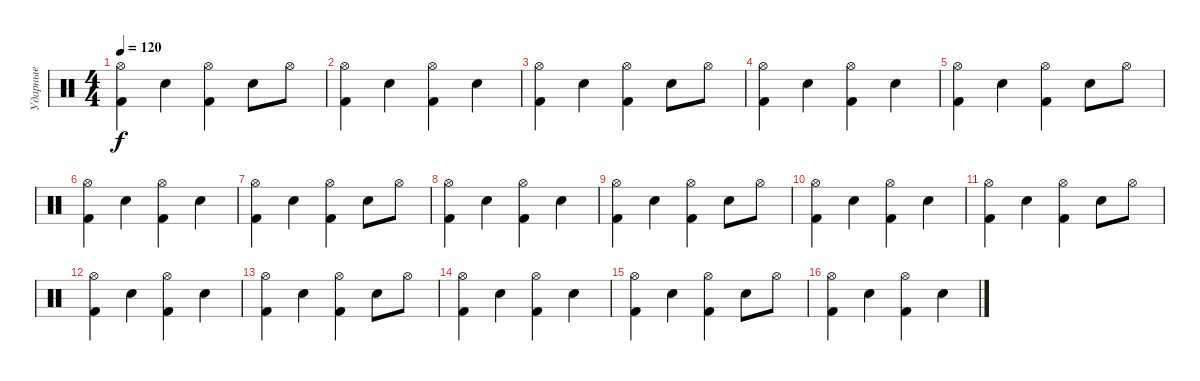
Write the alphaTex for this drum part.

\track ("Ударные" "Ударные") {instrument percussion}
\staff {score}
\articulation defaults
\ts (4 4)
\tempo 120
\clef neutral
\ks c
("Hi-Hat (open)" "Kick (hit) 2").4{dy f} "Electric Snare (hit)".4 ("Hi-Hat (open)" "Kick (hit) 2").4 "Electric Snare (hit)".8 "Hi-Hat (open)".8 |
("Hi-Hat (open)" "Kick (hit) 2").4 "Electric Snare (hit)".4 ("Hi-Hat (open)" "Kick (hit) 2").4 "Electric Snare (hit)".4 |
("Hi-Hat (open)" "Kick (hit) 2").4 "Electric Snare (hit)".4 ("Hi-Hat (open)" "Kick (hit) 2").4 "Electric Snare (hit)".8 "Hi-Hat (open)".8 |
("Hi-Hat (open)" "Kick (hit) 2").4 "Electric Snare (hit)".4 ("Hi-Hat (open)" "Kick (hit) 2").4 "Electric Snare (hit)".4 |
("Hi-Hat (open)" "Kick (hit) 2").4 "Electric Snare (hit)".4 ("Hi-Hat (open)" "Kick (hit) 2").4 "Electric Snare (hit)".8 "Hi-Hat (open)".8 |
("Hi-Hat (open)" "Kick (hit) 2").4 "Electric Snare (hit)".4 ("Hi-Hat (open)" "Kick (hit) 2").4 "Electric Snare (hit)".4 |
("Hi-Hat (open)" "Kick (hit) 2").4 "Electric Snare (hit)".4 ("Hi-Hat (open)" "Kick (hit) 2").4 "Electric Snare (hit)".8 "Hi-Hat (open)".8 |
("Hi-Hat (open)" "Kick (hit) 2").4 "Electric Snare (hit)".4 ("Hi-Hat (open)" "Kick (hit) 2").4 "Electric Snare (hit)".4 |
("Hi-Hat (open)" "Kick (hit) 2").4 "Electric Snare (hit)".4 ("Hi-Hat (open)" "Kick (hit) 2").4 "Electric Snare (hit)".8 "Hi-Hat (open)".8 |
("Hi-Hat (open)" "Kick (hit) 2").4 "Electric Snare (hit)".4 ("Hi-Hat (open)" "Kick (hit) 2").4 "Electric Snare (hit)".4 |
("Hi-Hat (open)" "Kick (hit) 2").4 "Electric Snare (hit)".4 ("Hi-Hat (open)" "Kick (hit) 2").4 "Electric Snare (hit)".8 "Hi-Hat (open)".8 |
("Hi-Hat (open)" "Kick (hit) 2").4 "Electric Snare (hit)".4 ("Hi-Hat (open)" "Kick (hit) 2").4 "Electric Snare (hit)".4 |
("Hi-Hat (open)" "Kick (hit) 2").4 "Electric Snare (hit)".4 ("Hi-Hat (open)" "Kick (hit) 2").4 "Electric Snare (hit)".8 "Hi-Hat (open)".8 |
("Hi-Hat (open)" "Kick (hit) 2").4 "Electric Snare (hit)".4 ("Hi-Hat (open)" "Kick (hit) 2").4 "Electric Snare (hit)".4 |
("Hi-Hat (open)" "Kick (hit) 2").4 "Electric Snare (hit)".4 ("Hi-Hat (open)" "Kick (hit) 2").4 "Electric Snare (hit)".8 "Hi-Hat (open)".8 |
("Hi-Hat (open)" "Kick (hit) 2").4 "Electric Snare (hit)".4 ("Hi-Hat (open)" "Kick (hit) 2").4 "Electric Snare (hit)".4
